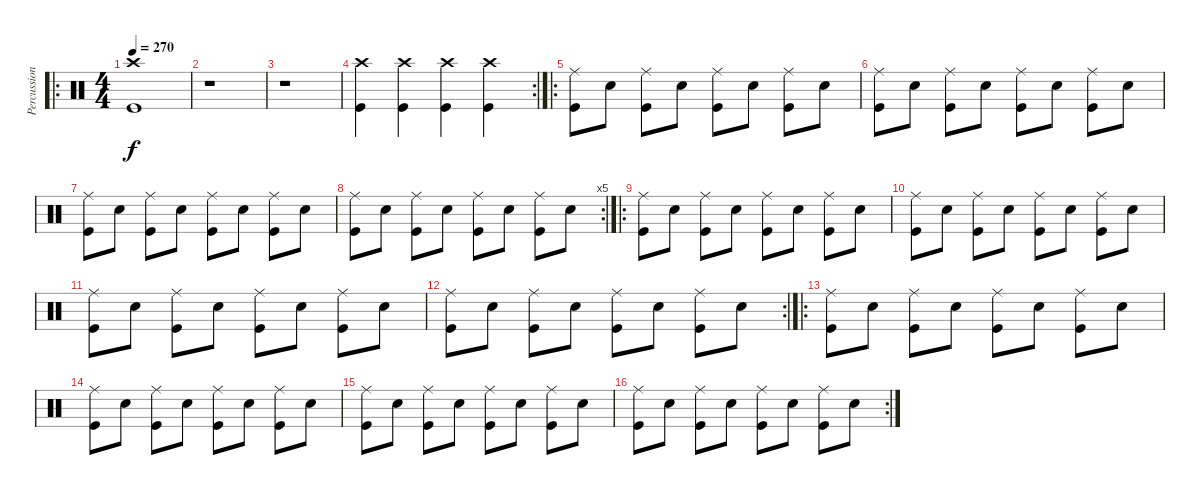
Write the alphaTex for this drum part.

\track ("Percussion" "Percussion") {instrument percussion}
\staff {score}
\articulation defaults
\ro
\ts (4 4)
\tempo 270
\clef neutral
\ks c
("Crash high (hit)" "Kick (hit)").1{dy f} |
r.1 |
r.1 |
\rc 2
("Crash high (hit)" "Kick (hit)").4 ("Crash high (hit)" "Kick (hit)").4 ("Crash high (hit)" "Kick (hit)").4 ("Crash high (hit)" "Kick (hit)").4 |
\ro
("Ride (middle)" "Kick (hit)").8 "Snare (hit) 2".8 ("Ride (middle)" "Kick (hit)").8 "Snare (hit) 2".8 ("Ride (middle)" "Kick (hit)").8 "Snare (hit) 2".8 ("Ride (middle)" "Kick (hit)").8 "Snare (hit) 2".8 |
("Ride (middle)" "Kick (hit)").8 "Snare (hit) 2".8 ("Ride (middle)" "Kick (hit)").8 "Snare (hit) 2".8 ("Ride (middle)" "Kick (hit)").8 "Snare (hit) 2".8 ("Ride (middle)" "Kick (hit)").8 "Snare (hit) 2".8 |
("Ride (middle)" "Kick (hit)").8 "Snare (hit) 2".8 ("Ride (middle)" "Kick (hit)").8 "Snare (hit) 2".8 ("Ride (middle)" "Kick (hit)").8 "Snare (hit) 2".8 ("Ride (middle)" "Kick (hit)").8 "Snare (hit) 2".8 |
\rc 5
("Ride (middle)" "Kick (hit)").8 "Snare (hit) 2".8 ("Ride (middle)" "Kick (hit)").8 "Snare (hit) 2".8 ("Ride (middle)" "Kick (hit)").8 "Snare (hit) 2".8 ("Ride (middle)" "Kick (hit)").8 "Snare (hit) 2".8 |
\ro
("Ride (middle)" "Kick (hit)").8 "Snare (hit) 2".8 ("Ride (middle)" "Kick (hit)").8 "Snare (hit) 2".8 ("Ride (middle)" "Kick (hit)").8 "Snare (hit) 2".8 ("Ride (middle)" "Kick (hit)").8 "Snare (hit) 2".8 |
("Ride (middle)" "Kick (hit)").8 "Snare (hit) 2".8 ("Ride (middle)" "Kick (hit)").8 "Snare (hit) 2".8 ("Ride (middle)" "Kick (hit)").8 "Snare (hit) 2".8 ("Ride (middle)" "Kick (hit)").8 "Snare (hit) 2".8 |
("Ride (middle)" "Kick (hit)").8 "Snare (hit) 2".8 ("Ride (middle)" "Kick (hit)").8 "Snare (hit) 2".8 ("Ride (middle)" "Kick (hit)").8 "Snare (hit) 2".8 ("Ride (middle)" "Kick (hit)").8 "Snare (hit) 2".8 |
\rc 2
("Ride (middle)" "Kick (hit)").8 "Snare (hit) 2".8 ("Ride (middle)" "Kick (hit)").8 "Snare (hit) 2".8 ("Ride (middle)" "Kick (hit)").8 "Snare (hit) 2".8 ("Ride (middle)" "Kick (hit)").8 "Snare (hit) 2".8 |
\ro
("Ride (middle)" "Kick (hit)").8 "Snare (hit) 2".8 ("Ride (middle)" "Kick (hit)").8 "Snare (hit) 2".8 ("Ride (middle)" "Kick (hit)").8 "Snare (hit) 2".8 ("Ride (middle)" "Kick (hit)").8 "Snare (hit) 2".8 |
("Ride (middle)" "Kick (hit)").8 "Snare (hit) 2".8 ("Ride (middle)" "Kick (hit)").8 "Snare (hit) 2".8 ("Ride (middle)" "Kick (hit)").8 "Snare (hit) 2".8 ("Ride (middle)" "Kick (hit)").8 "Snare (hit) 2".8 |
("Ride (middle)" "Kick (hit)").8 "Snare (hit) 2".8 ("Ride (middle)" "Kick (hit)").8 "Snare (hit) 2".8 ("Ride (middle)" "Kick (hit)").8 "Snare (hit) 2".8 ("Ride (middle)" "Kick (hit)").8 "Snare (hit) 2".8 |
\rc 2
("Ride (middle)" "Kick (hit)").8 "Snare (hit) 2".8 ("Ride (middle)" "Kick (hit)").8 "Snare (hit) 2".8 ("Ride (middle)" "Kick (hit)").8 "Snare (hit) 2".8 ("Ride (middle)" "Kick (hit)").8 "Snare (hit) 2".8
